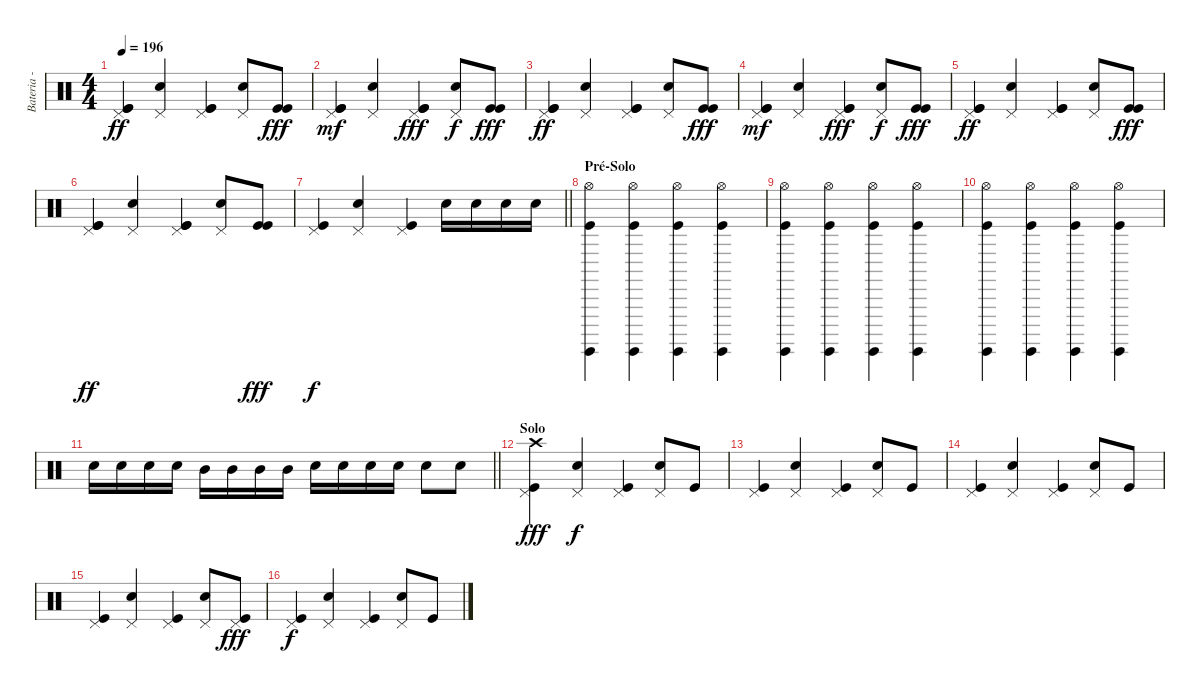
\track ("Bateria - Larzon" "Bateria - ") {instrument percussion}
\staff {score}
\articulation defaults
\ts (4 4)
\tempo 196
\clef neutral
\ks c
("Kick (hit)" "Kick (hit)" "Pedal Hi-Hat (hit)").4{dy ff} ("Electric Snare (hit)" "Pedal Hi-Hat (hit)").4 ("Kick (hit)" "Kick (hit)" "Pedal Hi-Hat (hit)").4 ("Electric Snare (hit)" "Pedal Hi-Hat (hit)").8 ("Kick (hit)" "Kick (hit)").8{dy fff} |
("Kick (hit)" "Kick (hit)" "Pedal Hi-Hat (hit)").4{dy mf} ("Electric Snare (hit)" "Pedal Hi-Hat (hit)").4 ("Kick (hit)" "Kick (hit)" "Pedal Hi-Hat (hit)").4{dy fff} ("Electric Snare (hit)" "Pedal Hi-Hat (hit)").8{dy f} ("Kick (hit)" "Kick (hit)").8{dy fff} |
("Kick (hit)" "Kick (hit)" "Pedal Hi-Hat (hit)").4{dy ff} ("Electric Snare (hit)" "Pedal Hi-Hat (hit)").4 ("Kick (hit)" "Kick (hit)" "Pedal Hi-Hat (hit)").4 ("Electric Snare (hit)" "Pedal Hi-Hat (hit)").8 ("Kick (hit)" "Kick (hit)").8{dy fff} |
("Kick (hit)" "Kick (hit)" "Pedal Hi-Hat (hit)").4{dy mf} ("Electric Snare (hit)" "Pedal Hi-Hat (hit)").4 ("Kick (hit)" "Kick (hit)" "Pedal Hi-Hat (hit)").4{dy fff} ("Electric Snare (hit)" "Pedal Hi-Hat (hit)").8{dy f} ("Kick (hit)" "Kick (hit)").8{dy fff} |
("Kick (hit)" "Kick (hit)" "Pedal Hi-Hat (hit)").4{dy ff} ("Electric Snare (hit)" "Pedal Hi-Hat (hit)").4 ("Kick (hit)" "Kick (hit)" "Pedal Hi-Hat (hit)").4 ("Electric Snare (hit)" "Pedal Hi-Hat (hit)").8 ("Kick (hit)" "Kick (hit)").8{dy fff} |
("Kick (hit)" "Kick (hit)" "Pedal Hi-Hat (hit)").4{dy ff} ("Electric Snare (hit)" "Pedal Hi-Hat (hit)").4 ("Kick (hit)" "Kick (hit)" "Pedal Hi-Hat (hit)").4 ("Electric Snare (hit)" "Pedal Hi-Hat (hit)").8 ("Kick (hit)" "Kick (hit)").8{dy fff} |
\barLineRight lightlight
("Kick (hit)" "Pedal Hi-Hat (hit)").4{dy f} ("Electric Snare (hit)" "Pedal Hi-Hat (hit)").4 ("Kick (hit)" "Pedal Hi-Hat (hit)").4 "Electric Snare (hit)".16 "Electric Snare (hit)".16 "Electric Snare (hit)".16 "Electric Snare (hit)".16 |
\section ("" "Pré-Solo")
("Kick (hit)" "Surdo (hit)" "Hi-Hat (open)").4 ("Kick (hit)" "Surdo (hit)" "Hi-Hat (open)").4 ("Kick (hit)" "Surdo (hit)" "Hi-Hat (open)").4 ("Kick (hit)" "Surdo (hit)" "Hi-Hat (open)").4 |
("Kick (hit)" "Surdo (hit)" "Hi-Hat (open)").4 ("Kick (hit)" "Surdo (hit)" "Hi-Hat (open)").4 ("Kick (hit)" "Surdo (hit)" "Hi-Hat (open)").4 ("Kick (hit)" "Surdo (hit)" "Hi-Hat (open)").4 |
("Kick (hit)" "Surdo (hit)" "Hi-Hat (open)").4 ("Kick (hit)" "Surdo (hit)" "Hi-Hat (open)").4 ("Kick (hit)" "Surdo (hit)" "Hi-Hat (open)").4 ("Kick (hit)" "Surdo (hit)" "Hi-Hat (open)").4 |
\barLineRight lightlight "Electric Snare (hit)".16 "Electric Snare (hit)".16 "Electric Snare (hit)".16 "Electric Snare (hit)".16 "Mid Tom (hit)".16 "Mid Tom (hit)".16 "Mid Tom (hit)".16 "Mid Tom (hit)".16 "Electric Snare (hit)".16 "Electric Snare (hit)".16 "Electric Snare (hit)".16 "Electric Snare (hit)".16 "Electric Snare (hit)".8 "Electric Snare (hit)".8
|
\section ("" "Solo")
("Kick (hit)" "Crash high (hit)" "Pedal Hi-Hat (hit)").4{dy fff} ("Electric Snare (hit)" "Pedal Hi-Hat (hit)").4{dy f} ("Kick (hit)" "Pedal Hi-Hat (hit)").4 ("Electric Snare (hit)" "Pedal Hi-Hat (hit)").8 "Kick (hit)".8 |
("Kick (hit)" "Pedal Hi-Hat (hit)").4 ("Electric Snare (hit)" "Pedal Hi-Hat (hit)").4 ("Kick (hit)" "Pedal Hi-Hat (hit)").4 ("Electric Snare (hit)" "Pedal Hi-Hat (hit)").8 "Kick (hit)".8 |
("Kick (hit)" "Pedal Hi-Hat (hit)").4 ("Electric Snare (hit)" "Pedal Hi-Hat (hit)").4 ("Kick (hit)" "Pedal Hi-Hat (hit)").4 ("Electric Snare (hit)" "Pedal Hi-Hat (hit)").8 "Kick (hit)".8 |
("Kick (hit)" "Pedal Hi-Hat (hit)").4 ("Electric Snare (hit)" "Pedal Hi-Hat (hit)").4 ("Kick (hit)" "Pedal Hi-Hat (hit)").4 ("Electric Snare (hit)" "Pedal Hi-Hat (hit)").8 ("Kick (hit)" "Pedal Hi-Hat (hit)").8{dy fff} |
("Kick (hit)" "Pedal Hi-Hat (hit)").4{dy f} ("Electric Snare (hit)" "Pedal Hi-Hat (hit)").4 ("Kick (hit)" "Pedal Hi-Hat (hit)").4 ("Electric Snare (hit)" "Pedal Hi-Hat (hit)").8 "Kick (hit)".8
